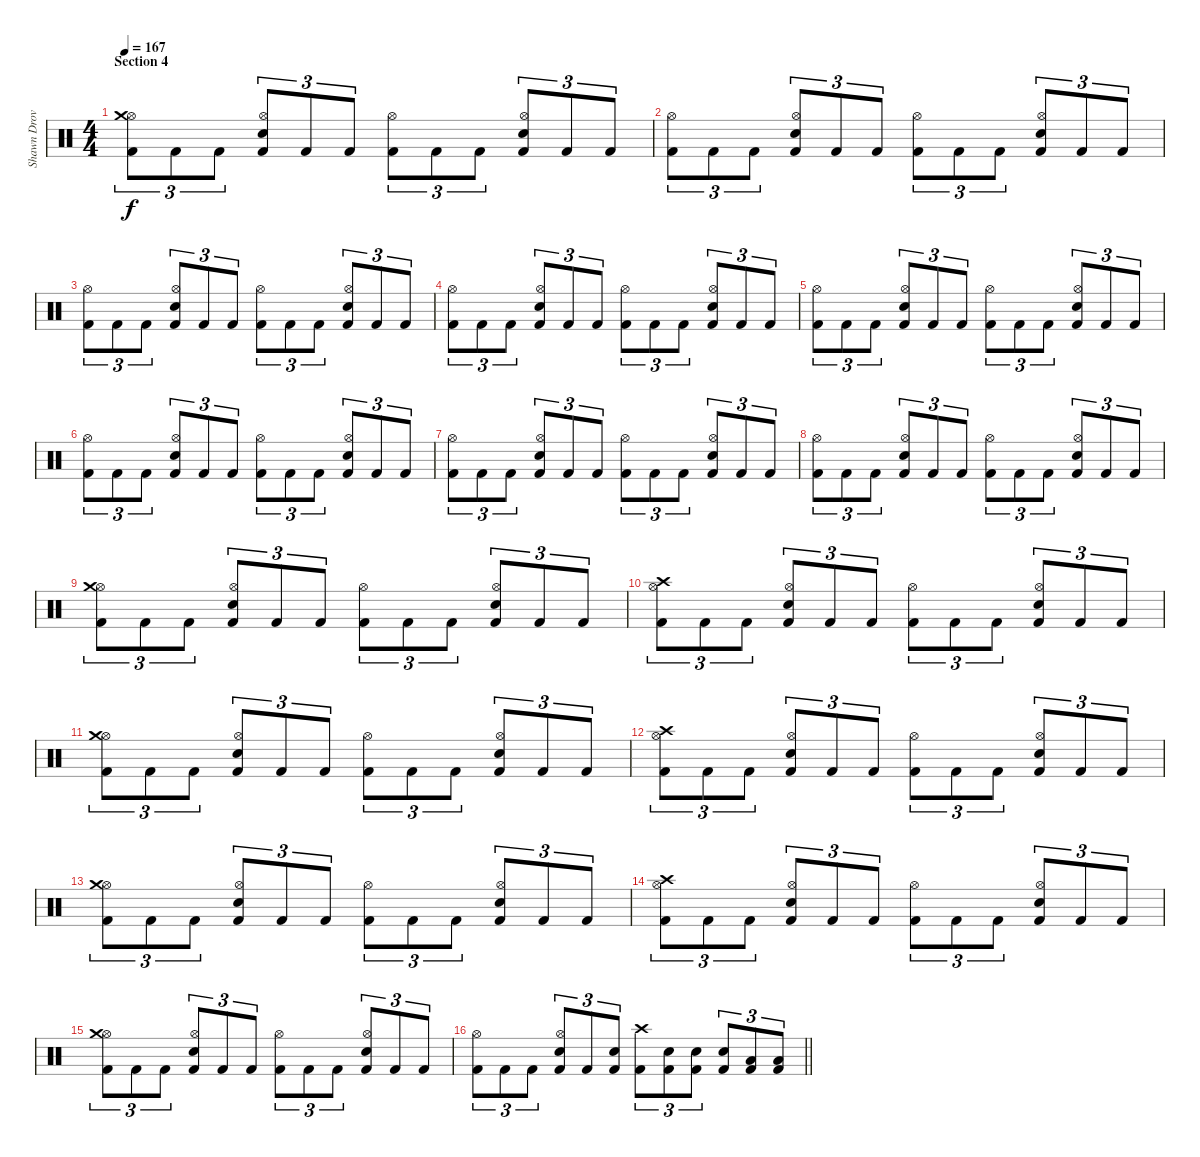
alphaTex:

\track ("Shawn Drover" "Shawn Drov") {instrument percussion}
\staff {score}
\articulation defaults
\ts (4 4)
\section ("" "Section 4")
\tempo 167
\clef neutral
\ks c
("Kick (hit) 2" "Hi-Hat (open)" "Crash medium (hit)").8{tu (3 2) dy f} "Kick (hit) 2".8{tu (3 2)} "Kick (hit) 2".8{tu (3 2)} ("Kick (hit) 2" "Snare (hit) 2" "Hi-Hat (open)").8{tu (3 2)} "Kick (hit) 2".8{tu (3 2)} "Kick (hit) 2".8{tu (3 2)} ("Kick (hit) 2" "Hi-Hat (open)").8{tu (3 2)} "Kick (hit) 2".8{tu (3 2)} "Kick (hit) 2".8{tu (3 2)} ("Kick (hit) 2" "Snare (hit) 2" "Hi-Hat (open)").8{tu (3 2)} "Kick (hit) 2".8{tu (3 2)} "Kick (hit) 2".8{tu (3 2)} |
("Kick (hit) 2" "Hi-Hat (open)").8{tu (3 2)} "Kick (hit) 2".8{tu (3 2)} "Kick (hit) 2".8{tu (3 2)} ("Kick (hit) 2" "Snare (hit) 2" "Hi-Hat (open)").8{tu (3 2)} "Kick (hit) 2".8{tu (3 2)} "Kick (hit) 2".8{tu (3 2)} ("Kick (hit) 2" "Hi-Hat (open)").8{tu (3 2)} "Kick (hit) 2".8{tu (3 2)} "Kick (hit) 2".8{tu (3 2)} ("Kick (hit) 2" "Snare (hit) 2" "Hi-Hat (open)").8{tu (3 2)} "Kick (hit) 2".8{tu (3 2)} "Kick (hit) 2".8{tu (3 2)} |
("Kick (hit) 2" "Hi-Hat (open)").8{tu (3 2)} "Kick (hit) 2".8{tu (3 2)} "Kick (hit) 2".8{tu (3 2)} ("Kick (hit) 2" "Snare (hit) 2" "Hi-Hat (open)").8{tu (3 2)} "Kick (hit) 2".8{tu (3 2)} "Kick (hit) 2".8{tu (3 2)} ("Kick (hit) 2" "Hi-Hat (open)").8{tu (3 2)} "Kick (hit) 2".8{tu (3 2)} "Kick (hit) 2".8{tu (3 2)} ("Kick (hit) 2" "Snare (hit) 2" "Hi-Hat (open)").8{tu (3 2)} "Kick (hit) 2".8{tu (3 2)} "Kick (hit) 2".8{tu (3 2)} |
("Kick (hit) 2" "Hi-Hat (open)").8{tu (3 2)} "Kick (hit) 2".8{tu (3 2)} "Kick (hit) 2".8{tu (3 2)} ("Kick (hit) 2" "Snare (hit) 2" "Hi-Hat (open)").8{tu (3 2)} "Kick (hit) 2".8{tu (3 2)} "Kick (hit) 2".8{tu (3 2)} ("Kick (hit) 2" "Hi-Hat (open)").8{tu (3 2)} "Kick (hit) 2".8{tu (3 2)} "Kick (hit) 2".8{tu (3 2)} ("Kick (hit) 2" "Snare (hit) 2" "Hi-Hat (open)").8{tu (3 2)} "Kick (hit) 2".8{tu (3 2)} "Kick (hit) 2".8{tu (3 2)} |
("Kick (hit) 2" "Hi-Hat (open)").8{tu (3 2)} "Kick (hit) 2".8{tu (3 2)} "Kick (hit) 2".8{tu (3 2)} ("Kick (hit) 2" "Snare (hit) 2" "Hi-Hat (open)").8{tu (3 2)} "Kick (hit) 2".8{tu (3 2)} "Kick (hit) 2".8{tu (3 2)} ("Kick (hit) 2" "Hi-Hat (open)").8{tu (3 2)} "Kick (hit) 2".8{tu (3 2)} "Kick (hit) 2".8{tu (3 2)} ("Kick (hit) 2" "Snare (hit) 2" "Hi-Hat (open)").8{tu (3 2)} "Kick (hit) 2".8{tu (3 2)} "Kick (hit) 2".8{tu (3 2)} |
("Kick (hit) 2" "Hi-Hat (open)").8{tu (3 2)} "Kick (hit) 2".8{tu (3 2)} "Kick (hit) 2".8{tu (3 2)} ("Kick (hit) 2" "Snare (hit) 2" "Hi-Hat (open)").8{tu (3 2)} "Kick (hit) 2".8{tu (3 2)} "Kick (hit) 2".8{tu (3 2)} ("Kick (hit) 2" "Hi-Hat (open)").8{tu (3 2)} "Kick (hit) 2".8{tu (3 2)} "Kick (hit) 2".8{tu (3 2)} ("Kick (hit) 2" "Snare (hit) 2" "Hi-Hat (open)").8{tu (3 2)} "Kick (hit) 2".8{tu (3 2)} "Kick (hit) 2".8{tu (3 2)} |
("Kick (hit) 2" "Hi-Hat (open)").8{tu (3 2)} "Kick (hit) 2".8{tu (3 2)} "Kick (hit) 2".8{tu (3 2)} ("Kick (hit) 2" "Snare (hit) 2" "Hi-Hat (open)").8{tu (3 2)} "Kick (hit) 2".8{tu (3 2)} "Kick (hit) 2".8{tu (3 2)} ("Kick (hit) 2" "Hi-Hat (open)").8{tu (3 2)} "Kick (hit) 2".8{tu (3 2)} "Kick (hit) 2".8{tu (3 2)} ("Kick (hit) 2" "Snare (hit) 2" "Hi-Hat (open)").8{tu (3 2)} "Kick (hit) 2".8{tu (3 2)} "Kick (hit) 2".8{tu (3 2)} |
("Kick (hit) 2" "Hi-Hat (open)").8{tu (3 2)} "Kick (hit) 2".8{tu (3 2)} "Kick (hit) 2".8{tu (3 2)} ("Kick (hit) 2" "Snare (hit) 2" "Hi-Hat (open)").8{tu (3 2)} "Kick (hit) 2".8{tu (3 2)} "Kick (hit) 2".8{tu (3 2)} ("Kick (hit) 2" "Hi-Hat (open)").8{tu (3 2)} "Kick (hit) 2".8{tu (3 2)} "Kick (hit) 2".8{tu (3 2)} ("Kick (hit) 2" "Snare (hit) 2" "Hi-Hat (open)").8{tu (3 2)} "Kick (hit) 2".8{tu (3 2)} "Kick (hit) 2".8{tu (3 2)} |
("Kick (hit) 2" "Hi-Hat (open)" "Crash medium (hit)").8{tu (3 2)} "Kick (hit) 2".8{tu (3 2)} "Kick (hit) 2".8{tu (3 2)} ("Kick (hit) 2" "Snare (hit) 2" "Hi-Hat (open)").8{tu (3 2)} "Kick (hit) 2".8{tu (3 2)} "Kick (hit) 2".8{tu (3 2)} ("Kick (hit) 2" "Hi-Hat (open)").8{tu (3 2)} "Kick (hit) 2".8{tu (3 2)} "Kick (hit) 2".8{tu (3 2)} ("Kick (hit) 2" "Snare (hit) 2" "Hi-Hat (open)").8{tu (3 2)} "Kick (hit) 2".8{tu (3 2)} "Kick (hit) 2".8{tu (3 2)} |
("Kick (hit) 2" "Hi-Hat (open)" "Crash high (hit)").8{tu (3 2)} "Kick (hit) 2".8{tu (3 2)} "Kick (hit) 2".8{tu (3 2)} ("Kick (hit) 2" "Snare (hit) 2" "Hi-Hat (open)").8{tu (3 2)} "Kick (hit) 2".8{tu (3 2)} "Kick (hit) 2".8{tu (3 2)} ("Kick (hit) 2" "Hi-Hat (open)").8{tu (3 2)} "Kick (hit) 2".8{tu (3 2)} "Kick (hit) 2".8{tu (3 2)} ("Kick (hit) 2" "Snare (hit) 2" "Hi-Hat (open)").8{tu (3 2)} "Kick (hit) 2".8{tu (3 2)} "Kick (hit) 2".8{tu (3 2)} |
("Kick (hit) 2" "Hi-Hat (open)" "Crash medium (hit)").8{tu (3 2)} "Kick (hit) 2".8{tu (3 2)} "Kick (hit) 2".8{tu (3 2)} ("Kick (hit) 2" "Snare (hit) 2" "Hi-Hat (open)").8{tu (3 2)} "Kick (hit) 2".8{tu (3 2)} "Kick (hit) 2".8{tu (3 2)} ("Kick (hit) 2" "Hi-Hat (open)").8{tu (3 2)} "Kick (hit) 2".8{tu (3 2)} "Kick (hit) 2".8{tu (3 2)} ("Kick (hit) 2" "Snare (hit) 2" "Hi-Hat (open)").8{tu (3 2)} "Kick (hit) 2".8{tu (3 2)} "Kick (hit) 2".8{tu (3 2)} |
("Kick (hit) 2" "Hi-Hat (open)" "Crash high (hit)").8{tu (3 2)} "Kick (hit) 2".8{tu (3 2)} "Kick (hit) 2".8{tu (3 2)} ("Kick (hit) 2" "Snare (hit) 2" "Hi-Hat (open)").8{tu (3 2)} "Kick (hit) 2".8{tu (3 2)} "Kick (hit) 2".8{tu (3 2)} ("Kick (hit) 2" "Hi-Hat (open)").8{tu (3 2)} "Kick (hit) 2".8{tu (3 2)} "Kick (hit) 2".8{tu (3 2)} ("Kick (hit) 2" "Snare (hit) 2" "Hi-Hat (open)").8{tu (3 2)} "Kick (hit) 2".8{tu (3 2)} "Kick (hit) 2".8{tu (3 2)} |
("Kick (hit) 2" "Hi-Hat (open)" "Crash medium (hit)").8{tu (3 2)} "Kick (hit) 2".8{tu (3 2)} "Kick (hit) 2".8{tu (3 2)} ("Kick (hit) 2" "Snare (hit) 2" "Hi-Hat (open)").8{tu (3 2)} "Kick (hit) 2".8{tu (3 2)} "Kick (hit) 2".8{tu (3 2)} ("Kick (hit) 2" "Hi-Hat (open)").8{tu (3 2)} "Kick (hit) 2".8{tu (3 2)} "Kick (hit) 2".8{tu (3 2)} ("Kick (hit) 2" "Snare (hit) 2" "Hi-Hat (open)").8{tu (3 2)} "Kick (hit) 2".8{tu (3 2)} "Kick (hit) 2".8{tu (3 2)} |
("Kick (hit) 2" "Hi-Hat (open)" "Crash high (hit)").8{tu (3 2)} "Kick (hit) 2".8{tu (3 2)} "Kick (hit) 2".8{tu (3 2)} ("Kick (hit) 2" "Snare (hit) 2" "Hi-Hat (open)").8{tu (3 2)} "Kick (hit) 2".8{tu (3 2)} "Kick (hit) 2".8{tu (3 2)} ("Kick (hit) 2" "Hi-Hat (open)").8{tu (3 2)} "Kick (hit) 2".8{tu (3 2)} "Kick (hit) 2".8{tu (3 2)} ("Kick (hit) 2" "Snare (hit) 2" "Hi-Hat (open)").8{tu (3 2)} "Kick (hit) 2".8{tu (3 2)} "Kick (hit) 2".8{tu (3 2)} |
("Kick (hit) 2" "Hi-Hat (open)" "Crash medium (hit)").8{tu (3 2)} "Kick (hit) 2".8{tu (3 2)} "Kick (hit) 2".8{tu (3 2)} ("Kick (hit) 2" "Snare (hit) 2" "Hi-Hat (open)").8{tu (3 2)} "Kick (hit) 2".8{tu (3 2)} "Kick (hit) 2".8{tu (3 2)} ("Kick (hit) 2" "Hi-Hat (open)").8{tu (3 2)} "Kick (hit) 2".8{tu (3 2)} "Kick (hit) 2".8{tu (3 2)} ("Kick (hit) 2" "Snare (hit) 2" "Hi-Hat (open)").8{tu (3 2)} "Kick (hit) 2".8{tu (3 2)} "Kick (hit) 2".8{tu (3 2)} |
\barLineRight lightlight
("Kick (hit) 2" "Hi-Hat (open)").8{tu (3 2)} "Kick (hit) 2".8{tu (3 2)} "Kick (hit) 2".8{tu (3 2)} ("Kick (hit) 2" "Snare (hit) 2" "Hi-Hat (open)").8{tu (3 2)} "Kick (hit) 2".8{tu (3 2)} ("Kick (hit) 2" "Snare (hit) 2").8{tu (3 2)} ("Kick (hit) 2" "Crash high (hit)").8{tu (3 2)} ("Kick (hit) 2" "Snare (hit) 2").8{tu (3 2)} ("Kick (hit) 2" "Snare (hit) 2").8{tu (3 2)} ("Kick (hit) 2" "Snare (hit) 2").8{tu (3 2)} ("Kick (hit) 2" "Low Tom (hit)").8{tu (3 2)} ("Kick (hit) 2" "Low Tom (hit)").8{tu (3 2)}
